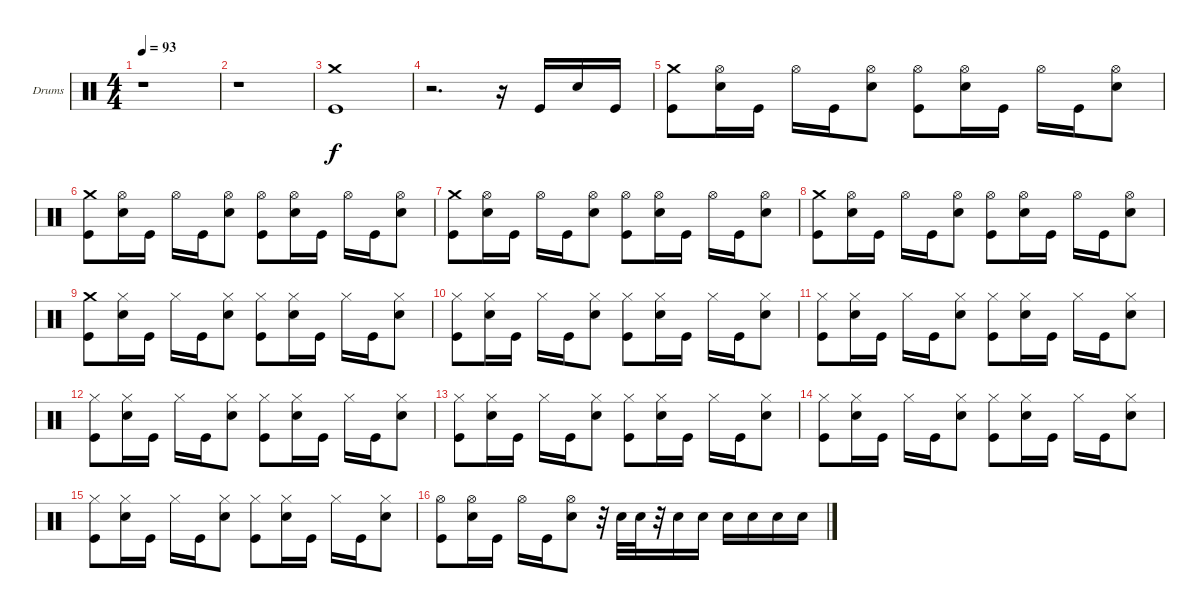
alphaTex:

\bracketExtendMode groupsimilarinstruments
\firstSystemTrackNameOrientation horizontal
\otherSystemsTrackNameOrientation horizontal
\track ("Drumkit" "Drums") {instrument percussion}
\staff {score}
\articulation defaults
\ts (4 4)
\beaming (8 2 2 2 2)
\tempo 93
\clef neutral
\ks c
r.1{dy f} |
r.1 |
("Crash medium (hit)" "Kick (hit)").1 |
r.2{d} r.16 "Kick (hit)".16 "Snare (hit) 2".16 "Kick (hit)".16 |
("Kick (hit)" "Crash medium (hit)").8 ("Hi-Hat (open)" "Snare (hit) 2").16 "Kick (hit)".16 "Hi-Hat (open)".16 "Kick (hit)".16 ("Hi-Hat (open)" "Snare (hit) 2").8 ("Kick (hit)" "Hi-Hat (open)").8 ("Hi-Hat (open)" "Snare (hit) 2").16 "Kick (hit)".16 "Hi-Hat (open)".16 "Kick (hit)".16 ("Hi-Hat (open)" "Snare (hit) 2").8 |
("Kick (hit)" "Crash medium (hit)").8 ("Hi-Hat (open)" "Snare (hit) 2").16 "Kick (hit)".16 "Hi-Hat (open)".16 "Kick (hit)".16 ("Hi-Hat (open)" "Snare (hit) 2").8 ("Kick (hit)" "Hi-Hat (open)").8 ("Hi-Hat (open)" "Snare (hit) 2").16 "Kick (hit)".16 "Hi-Hat (open)".16 "Kick (hit)".16 ("Hi-Hat (open)" "Snare (hit) 2").8 |
("Kick (hit)" "Crash medium (hit)").8 ("Hi-Hat (open)" "Snare (hit) 2").16 "Kick (hit)".16 "Hi-Hat (open)".16 "Kick (hit)".16 ("Hi-Hat (open)" "Snare (hit) 2").8 ("Kick (hit)" "Hi-Hat (open)").8 ("Hi-Hat (open)" "Snare (hit) 2").16 "Kick (hit)".16 "Hi-Hat (open)".16 "Kick (hit)".16 ("Hi-Hat (open)" "Snare (hit) 2").8 |
("Kick (hit)" "Crash medium (hit)").8 ("Hi-Hat (open)" "Snare (hit) 2").16 "Kick (hit)".16 "Hi-Hat (open)".16 "Kick (hit)".16 ("Hi-Hat (open)" "Snare (hit) 2").8 ("Kick (hit)" "Hi-Hat (open)").8 ("Hi-Hat (open)" "Snare (hit) 2").16 "Kick (hit)".16 "Hi-Hat (open)".16 "Kick (hit)".16 ("Hi-Hat (open)" "Snare (hit) 2").8 |
("Kick (hit)" "Crash medium (hit)").8 ("Hi-Hat (closed)" "Snare (hit) 2").16 "Kick (hit)".16 "Hi-Hat (closed)".16 "Kick (hit)".16 ("Hi-Hat (closed)" "Snare (hit) 2").8 ("Kick (hit)" "Hi-Hat (closed)").8 ("Hi-Hat (closed)" "Snare (hit) 2").16 "Kick (hit)".16 "Hi-Hat (closed)".16 "Kick (hit)".16 ("Hi-Hat (closed)" "Snare (hit) 2").8 |
("Kick (hit)" "Hi-Hat (closed)").8 ("Hi-Hat (closed)" "Snare (hit) 2").16 "Kick (hit)".16 "Hi-Hat (closed)".16 "Kick (hit)".16 ("Hi-Hat (closed)" "Snare (hit) 2").8 ("Kick (hit)" "Hi-Hat (closed)").8 ("Hi-Hat (closed)" "Snare (hit) 2").16 "Kick (hit)".16 "Hi-Hat (closed)".16 "Kick (hit)".16 ("Hi-Hat (closed)" "Snare (hit) 2").8 |
("Kick (hit)" "Hi-Hat (closed)").8 ("Hi-Hat (closed)" "Snare (hit) 2").16 "Kick (hit)".16 "Hi-Hat (closed)".16 "Kick (hit)".16 ("Hi-Hat (closed)" "Snare (hit) 2").8 ("Kick (hit)" "Hi-Hat (closed)").8 ("Hi-Hat (closed)" "Snare (hit) 2").16 "Kick (hit)".16 "Hi-Hat (closed)".16 "Kick (hit)".16 ("Hi-Hat (closed)" "Snare (hit) 2").8 |
("Kick (hit)" "Hi-Hat (closed)").8 ("Hi-Hat (closed)" "Snare (hit) 2").16 "Kick (hit)".16 "Hi-Hat (closed)".16 "Kick (hit)".16 ("Hi-Hat (closed)" "Snare (hit) 2").8 ("Kick (hit)" "Hi-Hat (closed)").8 ("Hi-Hat (closed)" "Snare (hit) 2").16 "Kick (hit)".16 "Hi-Hat (closed)".16 "Kick (hit)".16 ("Hi-Hat (closed)" "Snare (hit) 2").8 |
("Kick (hit)" "Hi-Hat (closed)").8 ("Hi-Hat (closed)" "Snare (hit) 2").16 "Kick (hit)".16 "Hi-Hat (closed)".16 "Kick (hit)".16 ("Hi-Hat (closed)" "Snare (hit) 2").8 ("Kick (hit)" "Hi-Hat (closed)").8 ("Hi-Hat (closed)" "Snare (hit) 2").16 "Kick (hit)".16 "Hi-Hat (closed)".16 "Kick (hit)".16 ("Hi-Hat (closed)" "Snare (hit) 2").8 |
("Kick (hit)" "Hi-Hat (closed)").8 ("Hi-Hat (closed)" "Snare (hit) 2").16 "Kick (hit)".16 "Hi-Hat (closed)".16 "Kick (hit)".16 ("Hi-Hat (closed)" "Snare (hit) 2").8 ("Kick (hit)" "Hi-Hat (closed)").8 ("Hi-Hat (closed)" "Snare (hit) 2").16 "Kick (hit)".16 "Hi-Hat (closed)".16 "Kick (hit)".16 ("Hi-Hat (closed)" "Snare (hit) 2").8 |
("Kick (hit)" "Hi-Hat (closed)").8 ("Hi-Hat (closed)" "Snare (hit) 2").16 "Kick (hit)".16 "Hi-Hat (closed)".16 "Kick (hit)".16 ("Hi-Hat (closed)" "Snare (hit) 2").8 ("Kick (hit)" "Hi-Hat (closed)").8 ("Hi-Hat (closed)" "Snare (hit) 2").16 "Kick (hit)".16 "Hi-Hat (closed)".16 "Kick (hit)".16 ("Hi-Hat (closed)" "Snare (hit) 2").8 |
("Kick (hit)" "Hi-Hat (open)").8 ("Hi-Hat (open)" "Snare (hit) 2").16 "Kick (hit)".16 "Hi-Hat (open)".16 "Kick (hit)".16 ("Hi-Hat (open)" "Snare (hit) 2").8 r.32 "Snare (hit) 2".32 "Snare (hit) 2".32 r.32 "Snare (hit) 2".16 "Snare (hit) 2".16 "Snare (hit) 2".16 "Snare (hit) 2".16 "Snare (hit) 2".16 "Snare (hit) 2".16
